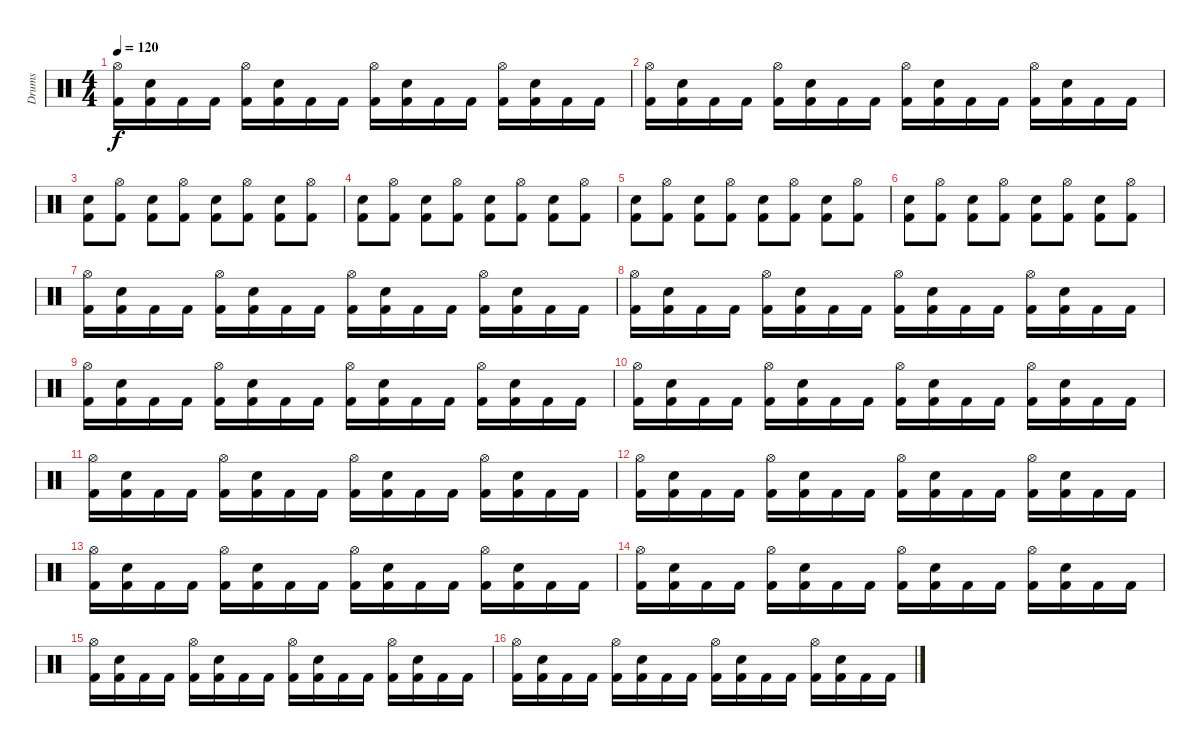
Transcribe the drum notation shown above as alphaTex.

\track ("Drums" "Drums") {instrument percussion}
\staff {score}
\articulation defaults
\ts (4 4)
\tempo 120
\clef neutral
\ks c
("Hi-Hat (open)" "Kick (hit) 2").16{dy f} ("Snare (hit) 2" "Kick (hit) 2").16 "Kick (hit) 2".16 "Kick (hit) 2".16 ("Hi-Hat (open)" "Kick (hit) 2").16 ("Snare (hit) 2" "Kick (hit) 2").16 "Kick (hit) 2".16 "Kick (hit) 2".16 ("Hi-Hat (open)" "Kick (hit) 2").16 ("Snare (hit) 2" "Kick (hit) 2").16 "Kick (hit) 2".16 "Kick (hit) 2".16 ("Hi-Hat (open)" "Kick (hit) 2").16 ("Snare (hit) 2" "Kick (hit) 2").16 "Kick (hit) 2".16 "Kick (hit) 2".16 |
("Hi-Hat (open)" "Kick (hit) 2").16 ("Snare (hit) 2" "Kick (hit) 2").16 "Kick (hit) 2".16 "Kick (hit) 2".16 ("Hi-Hat (open)" "Kick (hit) 2").16 ("Snare (hit) 2" "Kick (hit) 2").16 "Kick (hit) 2".16 "Kick (hit) 2".16 ("Hi-Hat (open)" "Kick (hit) 2").16 ("Snare (hit) 2" "Kick (hit) 2").16 "Kick (hit) 2".16 "Kick (hit) 2".16 ("Hi-Hat (open)" "Kick (hit) 2").16 ("Snare (hit) 2" "Kick (hit) 2").16 "Kick (hit) 2".16 "Kick (hit) 2".16 |
("Snare (hit) 2" "Kick (hit) 2").8 ("Hi-Hat (open)" "Kick (hit) 2").8 ("Snare (hit) 2" "Kick (hit) 2").8 ("Hi-Hat (open)" "Kick (hit) 2").8 ("Snare (hit) 2" "Kick (hit) 2").8 ("Hi-Hat (open)" "Kick (hit) 2").8 ("Snare (hit) 2" "Kick (hit) 2").8 ("Hi-Hat (open)" "Kick (hit) 2").8 |
("Snare (hit) 2" "Kick (hit) 2").8 ("Hi-Hat (open)" "Kick (hit) 2").8 ("Snare (hit) 2" "Kick (hit) 2").8 ("Hi-Hat (open)" "Kick (hit) 2").8 ("Snare (hit) 2" "Kick (hit) 2").8 ("Hi-Hat (open)" "Kick (hit) 2").8 ("Snare (hit) 2" "Kick (hit) 2").8 ("Hi-Hat (open)" "Kick (hit) 2").8 |
("Snare (hit) 2" "Kick (hit) 2").8 ("Hi-Hat (open)" "Kick (hit) 2").8 ("Snare (hit) 2" "Kick (hit) 2").8 ("Hi-Hat (open)" "Kick (hit) 2").8 ("Snare (hit) 2" "Kick (hit) 2").8 ("Hi-Hat (open)" "Kick (hit) 2").8 ("Snare (hit) 2" "Kick (hit) 2").8 ("Hi-Hat (open)" "Kick (hit) 2").8 |
("Snare (hit) 2" "Kick (hit) 2").8 ("Hi-Hat (open)" "Kick (hit) 2").8 ("Snare (hit) 2" "Kick (hit) 2").8 ("Hi-Hat (open)" "Kick (hit) 2").8 ("Snare (hit) 2" "Kick (hit) 2").8 ("Hi-Hat (open)" "Kick (hit) 2").8 ("Snare (hit) 2" "Kick (hit) 2").8 ("Hi-Hat (open)" "Kick (hit) 2").8 |
("Hi-Hat (open)" "Kick (hit) 2").16 ("Snare (hit) 2" "Kick (hit) 2").16 "Kick (hit) 2".16 "Kick (hit) 2".16 ("Hi-Hat (open)" "Kick (hit) 2").16 ("Snare (hit) 2" "Kick (hit) 2").16 "Kick (hit) 2".16 "Kick (hit) 2".16 ("Hi-Hat (open)" "Kick (hit) 2").16 ("Snare (hit) 2" "Kick (hit) 2").16 "Kick (hit) 2".16 "Kick (hit) 2".16 ("Hi-Hat (open)" "Kick (hit) 2").16 ("Snare (hit) 2" "Kick (hit) 2").16 "Kick (hit) 2".16 "Kick (hit) 2".16 |
("Hi-Hat (open)" "Kick (hit) 2").16 ("Snare (hit) 2" "Kick (hit) 2").16 "Kick (hit) 2".16 "Kick (hit) 2".16 ("Hi-Hat (open)" "Kick (hit) 2").16 ("Snare (hit) 2" "Kick (hit) 2").16 "Kick (hit) 2".16 "Kick (hit) 2".16 ("Hi-Hat (open)" "Kick (hit) 2").16 ("Snare (hit) 2" "Kick (hit) 2").16 "Kick (hit) 2".16 "Kick (hit) 2".16 ("Hi-Hat (open)" "Kick (hit) 2").16 ("Snare (hit) 2" "Kick (hit) 2").16 "Kick (hit) 2".16 "Kick (hit) 2".16 |
("Hi-Hat (open)" "Kick (hit) 2").16 ("Snare (hit) 2" "Kick (hit) 2").16 "Kick (hit) 2".16 "Kick (hit) 2".16 ("Hi-Hat (open)" "Kick (hit) 2").16 ("Snare (hit) 2" "Kick (hit) 2").16 "Kick (hit) 2".16 "Kick (hit) 2".16 ("Hi-Hat (open)" "Kick (hit) 2").16 ("Snare (hit) 2" "Kick (hit) 2").16 "Kick (hit) 2".16 "Kick (hit) 2".16 ("Hi-Hat (open)" "Kick (hit) 2").16 ("Snare (hit) 2" "Kick (hit) 2").16 "Kick (hit) 2".16 "Kick (hit) 2".16 |
("Hi-Hat (open)" "Kick (hit) 2").16 ("Snare (hit) 2" "Kick (hit) 2").16 "Kick (hit) 2".16 "Kick (hit) 2".16 ("Hi-Hat (open)" "Kick (hit) 2").16 ("Snare (hit) 2" "Kick (hit) 2").16 "Kick (hit) 2".16 "Kick (hit) 2".16 ("Hi-Hat (open)" "Kick (hit) 2").16 ("Snare (hit) 2" "Kick (hit) 2").16 "Kick (hit) 2".16 "Kick (hit) 2".16 ("Hi-Hat (open)" "Kick (hit) 2").16 ("Snare (hit) 2" "Kick (hit) 2").16 "Kick (hit) 2".16 "Kick (hit) 2".16 |
("Hi-Hat (open)" "Kick (hit) 2").16 ("Snare (hit) 2" "Kick (hit) 2").16 "Kick (hit) 2".16 "Kick (hit) 2".16 ("Hi-Hat (open)" "Kick (hit) 2").16 ("Snare (hit) 2" "Kick (hit) 2").16 "Kick (hit) 2".16 "Kick (hit) 2".16 ("Hi-Hat (open)" "Kick (hit) 2").16 ("Snare (hit) 2" "Kick (hit) 2").16 "Kick (hit) 2".16 "Kick (hit) 2".16 ("Hi-Hat (open)" "Kick (hit) 2").16 ("Snare (hit) 2" "Kick (hit) 2").16 "Kick (hit) 2".16 "Kick (hit) 2".16 |
("Hi-Hat (open)" "Kick (hit) 2").16 ("Snare (hit) 2" "Kick (hit) 2").16 "Kick (hit) 2".16 "Kick (hit) 2".16 ("Hi-Hat (open)" "Kick (hit) 2").16 ("Snare (hit) 2" "Kick (hit) 2").16 "Kick (hit) 2".16 "Kick (hit) 2".16 ("Hi-Hat (open)" "Kick (hit) 2").16 ("Snare (hit) 2" "Kick (hit) 2").16 "Kick (hit) 2".16 "Kick (hit) 2".16 ("Hi-Hat (open)" "Kick (hit) 2").16 ("Snare (hit) 2" "Kick (hit) 2").16 "Kick (hit) 2".16 "Kick (hit) 2".16 |
("Hi-Hat (open)" "Kick (hit) 2").16 ("Snare (hit) 2" "Kick (hit) 2").16 "Kick (hit) 2".16 "Kick (hit) 2".16 ("Hi-Hat (open)" "Kick (hit) 2").16 ("Snare (hit) 2" "Kick (hit) 2").16 "Kick (hit) 2".16 "Kick (hit) 2".16 ("Hi-Hat (open)" "Kick (hit) 2").16 ("Snare (hit) 2" "Kick (hit) 2").16 "Kick (hit) 2".16 "Kick (hit) 2".16 ("Hi-Hat (open)" "Kick (hit) 2").16 ("Snare (hit) 2" "Kick (hit) 2").16 "Kick (hit) 2".16 "Kick (hit) 2".16 |
("Hi-Hat (open)" "Kick (hit) 2").16 ("Snare (hit) 2" "Kick (hit) 2").16 "Kick (hit) 2".16 "Kick (hit) 2".16 ("Hi-Hat (open)" "Kick (hit) 2").16 ("Snare (hit) 2" "Kick (hit) 2").16 "Kick (hit) 2".16 "Kick (hit) 2".16 ("Hi-Hat (open)" "Kick (hit) 2").16 ("Snare (hit) 2" "Kick (hit) 2").16 "Kick (hit) 2".16 "Kick (hit) 2".16 ("Hi-Hat (open)" "Kick (hit) 2").16 ("Snare (hit) 2" "Kick (hit) 2").16 "Kick (hit) 2".16 "Kick (hit) 2".16 |
("Hi-Hat (open)" "Kick (hit) 2").16 ("Snare (hit) 2" "Kick (hit) 2").16 "Kick (hit) 2".16 "Kick (hit) 2".16 ("Hi-Hat (open)" "Kick (hit) 2").16 ("Snare (hit) 2" "Kick (hit) 2").16 "Kick (hit) 2".16 "Kick (hit) 2".16 ("Hi-Hat (open)" "Kick (hit) 2").16 ("Snare (hit) 2" "Kick (hit) 2").16 "Kick (hit) 2".16 "Kick (hit) 2".16 ("Hi-Hat (open)" "Kick (hit) 2").16 ("Snare (hit) 2" "Kick (hit) 2").16 "Kick (hit) 2".16 "Kick (hit) 2".16 |
("Hi-Hat (open)" "Kick (hit) 2").16 ("Snare (hit) 2" "Kick (hit) 2").16 "Kick (hit) 2".16 "Kick (hit) 2".16 ("Hi-Hat (open)" "Kick (hit) 2").16 ("Snare (hit) 2" "Kick (hit) 2").16 "Kick (hit) 2".16 "Kick (hit) 2".16 ("Hi-Hat (open)" "Kick (hit) 2").16 ("Snare (hit) 2" "Kick (hit) 2").16 "Kick (hit) 2".16 "Kick (hit) 2".16 ("Hi-Hat (open)" "Kick (hit) 2").16 ("Snare (hit) 2" "Kick (hit) 2").16 "Kick (hit) 2".16 "Kick (hit) 2".16
